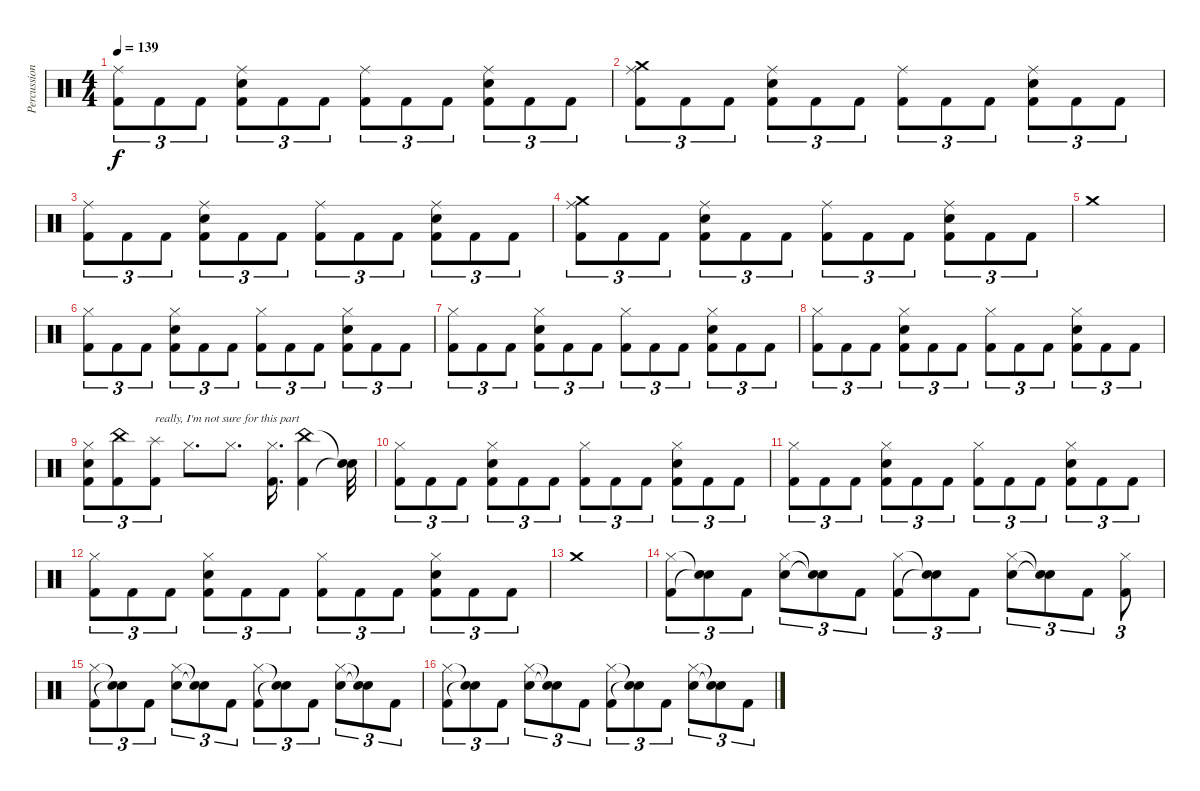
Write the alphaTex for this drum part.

\track ("Percussions" "Percussion") {instrument percussion}
\staff {score}
\articulation defaults
\ts (4 4)
\tempo 139
\clef neutral
\ks c
("Ride (middle)" "Kick (hit) 2").8{tu (3 2) dy f} "Kick (hit) 2".8{tu (3 2)} "Kick (hit) 2".8{tu (3 2)} ("Ride (middle)" "Snare (hit) 2" "Kick (hit) 2").8{tu (3 2)} "Kick (hit) 2".8{tu (3 2)} "Kick (hit) 2".8{tu (3 2)} ("Ride (middle)" "Kick (hit) 2").8{tu (3 2)} "Kick (hit) 2".8{tu (3 2)} "Kick (hit) 2".8{tu (3 2)} ("Ride (middle)" "Snare (hit) 2" "Kick (hit) 2").8{tu (3 2)} "Kick (hit) 2".8{tu (3 2)} "Kick (hit) 2".8{tu (3 2)} |
("Crash medium (hit)" "Ride (middle)" "Kick (hit) 2").8{tu (3 2)} "Kick (hit) 2".8{tu (3 2)} "Kick (hit) 2".8{tu (3 2)} ("Ride (middle)" "Snare (hit) 2" "Kick (hit) 2").8{tu (3 2)} "Kick (hit) 2".8{tu (3 2)} "Kick (hit) 2".8{tu (3 2)} ("Ride (middle)" "Kick (hit) 2").8{tu (3 2)} "Kick (hit) 2".8{tu (3 2)} "Kick (hit) 2".8{tu (3 2)} ("Ride (middle)" "Snare (hit) 2" "Kick (hit) 2").8{tu (3 2)} "Kick (hit) 2".8{tu (3 2)} "Kick (hit) 2".8{tu (3 2)} |
("Ride (middle)" "Kick (hit) 2").8{tu (3 2)} "Kick (hit) 2".8{tu (3 2)} "Kick (hit) 2".8{tu (3 2)} ("Ride (middle)" "Snare (hit) 2" "Kick (hit) 2").8{tu (3 2)} "Kick (hit) 2".8{tu (3 2)} "Kick (hit) 2".8{tu (3 2)} ("Ride (middle)" "Kick (hit) 2").8{tu (3 2)} "Kick (hit) 2".8{tu (3 2)} "Kick (hit) 2".8{tu (3 2)} ("Ride (middle)" "Snare (hit) 2" "Kick (hit) 2").8{tu (3 2)} "Kick (hit) 2".8{tu (3 2)} "Kick (hit) 2".8{tu (3 2)} |
("Crash medium (hit)" "Ride (middle)" "Kick (hit) 2").8{tu (3 2)} "Kick (hit) 2".8{tu (3 2)} "Kick (hit) 2".8{tu (3 2)} ("Ride (middle)" "Snare (hit) 2" "Kick (hit) 2").8{tu (3 2)} "Kick (hit) 2".8{tu (3 2)} "Kick (hit) 2".8{tu (3 2)} ("Ride (middle)" "Kick (hit) 2").8{tu (3 2)} "Kick (hit) 2".8{tu (3 2)} "Kick (hit) 2".8{tu (3 2)} ("Ride (middle)" "Snare (hit) 2" "Kick (hit) 2").8{tu (3 2)} "Kick (hit) 2".8{tu (3 2)} "Kick (hit) 2".8{tu (3 2)} |
"Crash medium (hit)".1 |
("Hi-Hat (closed)" "Kick (hit) 2").8{tu (3 2)} "Kick (hit) 2".8{tu (3 2)} "Kick (hit) 2".8{tu (3 2)} ("Hi-Hat (closed)" "Snare (hit) 2" "Kick (hit) 2").8{tu (3 2)} "Kick (hit) 2".8{tu (3 2)} "Kick (hit) 2".8{tu (3 2)} ("Hi-Hat (closed)" "Kick (hit) 2").8{tu (3 2)} "Kick (hit) 2".8{tu (3 2)} "Kick (hit) 2".8{tu (3 2)} ("Hi-Hat (closed)" "Snare (hit) 2" "Kick (hit) 2").8{tu (3 2)} "Kick (hit) 2".8{tu (3 2)} "Kick (hit) 2".8{tu (3 2)} |
("Hi-Hat (closed)" "Kick (hit) 2").8{tu (3 2)} "Kick (hit) 2".8{tu (3 2)} "Kick (hit) 2".8{tu (3 2)} ("Hi-Hat (closed)" "Snare (hit) 2" "Kick (hit) 2").8{tu (3 2)} "Kick (hit) 2".8{tu (3 2)} "Kick (hit) 2".8{tu (3 2)} ("Hi-Hat (closed)" "Kick (hit) 2").8{tu (3 2)} "Kick (hit) 2".8{tu (3 2)} "Kick (hit) 2".8{tu (3 2)} ("Hi-Hat (closed)" "Snare (hit) 2" "Kick (hit) 2").8{tu (3 2)} "Kick (hit) 2".8{tu (3 2)} "Kick (hit) 2".8{tu (3 2)} |
("Hi-Hat (closed)" "Kick (hit) 2").8{tu (3 2)} "Kick (hit) 2".8{tu (3 2)} "Kick (hit) 2".8{tu (3 2)} ("Hi-Hat (closed)" "Snare (hit) 2" "Kick (hit) 2").8{tu (3 2)} "Kick (hit) 2".8{tu (3 2)} "Kick (hit) 2".8{tu (3 2)} ("Hi-Hat (closed)" "Kick (hit) 2").8{tu (3 2)} "Kick (hit) 2".8{tu (3 2)} "Kick (hit) 2".8{tu (3 2)} ("Hi-Hat (closed)" "Snare (hit) 2" "Kick (hit) 2").8{tu (3 2)} "Kick (hit) 2".8{tu (3 2)} "Kick (hit) 2".8{tu (3 2)} |
("Hi-Hat (closed)" "Snare (hit) 2" "Kick (hit) 2").8{tu (3 2)} ("China (hit)" "Kick (hit) 2").8{tu (3 2)} ("Splash (hit)" "Kick (hit) 2").8{tu (3 2) txt "really, I'm not sure for this part"} "Hi-Hat (closed)".8{d} "Hi-Hat (closed)".8{d} ("Hi-Hat (closed)" "Kick (hit) 2").16{d} ("China (hit)" "Kick (hit) 2").4 ("Snare (hit)"{t} "Snare (hit)"{t}).32 |
("Hi-Hat (closed)" "Kick (hit) 2").8{tu (3 2)} "Kick (hit) 2".8{tu (3 2)} "Kick (hit) 2".8{tu (3 2)} ("Hi-Hat (closed)" "Snare (hit) 2" "Kick (hit) 2").8{tu (3 2)} "Kick (hit) 2".8{tu (3 2)} "Kick (hit) 2".8{tu (3 2)} ("Hi-Hat (closed)" "Kick (hit) 2").8{tu (3 2)} "Kick (hit) 2".8{tu (3 2)} "Kick (hit) 2".8{tu (3 2)} ("Hi-Hat (closed)" "Snare (hit) 2" "Kick (hit) 2").8{tu (3 2)} "Kick (hit) 2".8{tu (3 2)} "Kick (hit) 2".8{tu (3 2)} |
("Hi-Hat (closed)" "Kick (hit) 2").8{tu (3 2)} "Kick (hit) 2".8{tu (3 2)} "Kick (hit) 2".8{tu (3 2)} ("Hi-Hat (closed)" "Snare (hit) 2" "Kick (hit) 2").8{tu (3 2)} "Kick (hit) 2".8{tu (3 2)} "Kick (hit) 2".8{tu (3 2)} ("Hi-Hat (closed)" "Kick (hit) 2").8{tu (3 2)} "Kick (hit) 2".8{tu (3 2)} "Kick (hit) 2".8{tu (3 2)} ("Hi-Hat (closed)" "Snare (hit) 2" "Kick (hit) 2").8{tu (3 2)} "Kick (hit) 2".8{tu (3 2)} "Kick (hit) 2".8{tu (3 2)} |
("Hi-Hat (closed)" "Kick (hit) 2").8{tu (3 2)} "Kick (hit) 2".8{tu (3 2)} "Kick (hit) 2".8{tu (3 2)} ("Hi-Hat (closed)" "Snare (hit) 2" "Kick (hit) 2").8{tu (3 2)} "Kick (hit) 2".8{tu (3 2)} "Kick (hit) 2".8{tu (3 2)} ("Hi-Hat (closed)" "Kick (hit) 2").8{tu (3 2)} "Kick (hit) 2".8{tu (3 2)} "Kick (hit) 2".8{tu (3 2)} ("Hi-Hat (closed)" "Snare (hit) 2" "Kick (hit) 2").8{tu (3 2)} "Kick (hit) 2".8{tu (3 2)} "Kick (hit) 2".8{tu (3 2)} |
"Crash medium (hit)".1 |
("Hi-Hat (closed)" "Kick (hit) 2").8{tu (3 2)} ("Snare (hit)"{t} "Snare (hit)"{t}).8{tu (3 2)} "Kick (hit) 2".8{tu (3 2)} ("Hi-Hat (closed)" "Snare (hit) 2").8{tu (3 2)} ("Snare (hit)"{t} "Snare (hit)"{t}).8{tu (3 2)} "Kick (hit) 2".8{tu (3 2)} ("Hi-Hat (closed)" "Kick (hit) 2").8{tu (3 2)} ("Snare (hit)"{t} "Snare (hit)"{t}).8{tu (3 2)} "Kick (hit) 2".8{tu (3 2)} ("Hi-Hat (closed)" "Snare (hit) 2").8{tu (3 2)} ("Snare (hit)"{t} "Snare (hit)"{t}).8{tu (3 2)} "Kick (hit) 2".8{tu (3 2)} ("Hi-Hat (closed)" "Kick (hit) 2").8{tu (3 2)} |
("Hi-Hat (closed)" "Kick (hit) 2").8{tu (3 2)} ("Snare (hit)"{t} "Snare (hit)"{t}).8{tu (3 2)} "Kick (hit) 2".8{tu (3 2)} ("Hi-Hat (closed)" "Snare (hit) 2").8{tu (3 2)} ("Snare (hit)"{t} "Snare (hit)"{t}).8{tu (3 2)} "Kick (hit) 2".8{tu (3 2)} ("Hi-Hat (closed)" "Kick (hit) 2").8{tu (3 2)} ("Snare (hit)"{t} "Snare (hit)"{t}).8{tu (3 2)} "Kick (hit) 2".8{tu (3 2)} ("Hi-Hat (closed)" "Snare (hit) 2").8{tu (3 2)} ("Snare (hit)"{t} "Snare (hit)"{t}).8{tu (3 2)} "Kick (hit) 2".8{tu (3 2)} |
("Hi-Hat (closed)" "Kick (hit) 2").8{tu (3 2)} ("Snare (hit)"{t} "Snare (hit)"{t}).8{tu (3 2)} "Kick (hit) 2".8{tu (3 2)} ("Hi-Hat (closed)" "Snare (hit) 2").8{tu (3 2)} ("Snare (hit)"{t} "Snare (hit)"{t}).8{tu (3 2)} "Kick (hit) 2".8{tu (3 2)} ("Hi-Hat (closed)" "Kick (hit) 2").8{tu (3 2)} ("Snare (hit)"{t} "Snare (hit)"{t}).8{tu (3 2)} "Kick (hit) 2".8{tu (3 2)} ("Hi-Hat (closed)" "Snare (hit) 2").8{tu (3 2)} ("Snare (hit)"{t} "Snare (hit)"{t}).8{tu (3 2)} "Kick (hit) 2".8{tu (3 2)}
